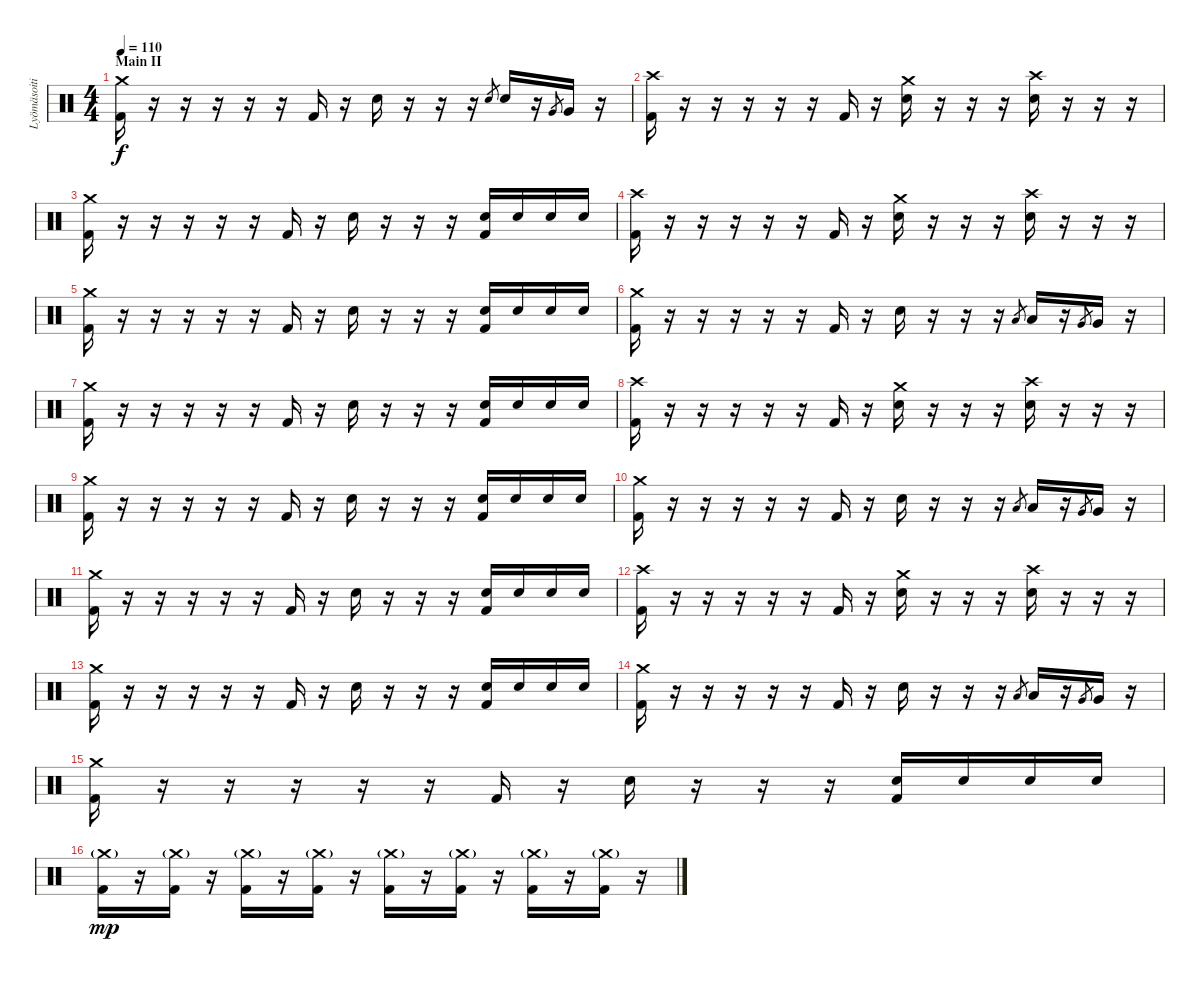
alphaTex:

\track ("Lyömäsoitin" "Lyömäsoiti") {instrument percussion}
\staff {score}
\articulation defaults
\ts (4 4)
\section ("" "Main II")
\tempo 110
\clef neutral
\ks c
("Crash medium (hit)" "Kick (hit) 2").16{dy f} r.16 r.16 r.16 r.16 r.16 "Kick (hit) 2".16 r.16 "Snare (hit) 2".16 r.16 r.16 r.16 "Snare (hit) 2"{h}.8{gr} "Snare (hit) 2".16 r.16 "Very Low Tom (hit)"{h}.8{gr} "Very Low Tom (hit)".16 r.16 |
("Crash high (hit)" "Kick (hit) 2").16 r.16 r.16 r.16 r.16 r.16 "Kick (hit) 2".16 r.16 ("Crash medium (hit)" "Snare (hit) 2").16 r.16 r.16 r.16 ("Crash high (hit)" "Snare (hit) 2").16 r.16 r.16 r.16 |
("Crash medium (hit)" "Kick (hit) 2").16 r.16 r.16 r.16 r.16 r.16 "Kick (hit) 2".16 r.16 "Snare (hit) 2".16 r.16 r.16 r.16 ("Snare (hit) 2" "Kick (hit) 2").16 "Snare (hit) 2".16 "Snare (hit) 2".16 "Snare (hit) 2".16 |
("Crash high (hit)" "Kick (hit) 2").16 r.16 r.16 r.16 r.16 r.16 "Kick (hit) 2".16 r.16 ("Crash medium (hit)" "Snare (hit) 2").16 r.16 r.16 r.16 ("Crash high (hit)" "Snare (hit) 2").16 r.16 r.16 r.16 |
("Crash medium (hit)" "Kick (hit) 2").16 r.16 r.16 r.16 r.16 r.16 "Kick (hit) 2".16 r.16 "Snare (hit) 2".16 r.16 r.16 r.16 ("Snare (hit) 2" "Kick (hit) 2").16 "Snare (hit) 2".16 "Snare (hit) 2".16 "Snare (hit) 2".16 |
("Crash medium (hit)" "Kick (hit) 2").16 r.16 r.16 r.16 r.16 r.16 "Kick (hit) 2".16 r.16 "Snare (hit) 2".16 r.16 r.16 r.16 "Low Tom (hit)"{h}.8{gr} "Low Tom (hit)".16 r.16 "Very Low Tom (hit)"{h}.8{gr} "Very Low Tom (hit)".16 r.16 |
("Crash medium (hit)" "Kick (hit) 2").16 r.16 r.16 r.16 r.16 r.16 "Kick (hit) 2".16 r.16 "Snare (hit) 2".16 r.16 r.16 r.16 ("Snare (hit) 2" "Kick (hit) 2").16 "Snare (hit) 2".16 "Snare (hit) 2".16 "Snare (hit) 2".16 |
("Crash high (hit)" "Kick (hit) 2").16 r.16 r.16 r.16 r.16 r.16 "Kick (hit) 2".16 r.16 ("Crash medium (hit)" "Snare (hit) 2").16 r.16 r.16 r.16 ("Crash high (hit)" "Snare (hit) 2").16 r.16 r.16 r.16 |
("Crash medium (hit)" "Kick (hit) 2").16 r.16 r.16 r.16 r.16 r.16 "Kick (hit) 2".16 r.16 "Snare (hit) 2".16 r.16 r.16 r.16 ("Snare (hit) 2" "Kick (hit) 2").16 "Snare (hit) 2".16 "Snare (hit) 2".16 "Snare (hit) 2".16 |
("Crash medium (hit)" "Kick (hit) 2").16 r.16 r.16 r.16 r.16 r.16 "Kick (hit) 2".16 r.16 "Snare (hit) 2".16 r.16 r.16 r.16 "Low Tom (hit)".8{gr} "Low Tom (hit)".16 r.16 "Very Low Tom (hit)".8{gr} "Very Low Tom (hit)".16 r.16 |
("Crash medium (hit)" "Kick (hit) 2").16 r.16 r.16 r.16 r.16 r.16 "Kick (hit) 2".16 r.16 "Snare (hit) 2".16 r.16 r.16 r.16 ("Snare (hit) 2" "Kick (hit) 2").16 "Snare (hit) 2".16 "Snare (hit) 2".16 "Snare (hit) 2".16 |
("Crash high (hit)" "Kick (hit) 2").16 r.16 r.16 r.16 r.16 r.16 "Kick (hit) 2".16 r.16 ("Crash medium (hit)" "Snare (hit) 2").16 r.16 r.16 r.16 ("Crash high (hit)" "Snare (hit) 2").16 r.16 r.16 r.16 |
("Crash medium (hit)" "Kick (hit) 2").16 r.16 r.16 r.16 r.16 r.16 "Kick (hit) 2".16 r.16 "Snare (hit) 2".16 r.16 r.16 r.16 ("Snare (hit) 2" "Kick (hit) 2").16 "Snare (hit) 2".16 "Snare (hit) 2".16 "Snare (hit) 2".16 |
("Crash medium (hit)" "Kick (hit) 2").16 r.16 r.16 r.16 r.16 r.16 "Kick (hit) 2".16 r.16 "Snare (hit) 2".16 r.16 r.16 r.16 "Low Tom (hit)".8{gr} "Low Tom (hit)".16 r.16 "Very Low Tom (hit)".8{gr} "Very Low Tom (hit)".16 r.16 |
("Crash medium (hit)" "Kick (hit) 2").16 r.16 r.16 r.16 r.16 r.16 "Kick (hit) 2".16 r.16 "Snare (hit) 2".16 r.16 r.16 r.16 ("Snare (hit) 2" "Kick (hit) 2").16 "Snare (hit) 2".16 "Snare (hit) 2".16 "Snare (hit) 2".16 |
("Crash medium (hit)"{g} "Kick (hit) 2").16{dy mp} r.16 ("Crash medium (hit)"{g} "Kick (hit) 2").16 r.16 ("Crash medium (hit)"{g} "Kick (hit) 2").16 r.16 ("Crash medium (hit)"{g} "Kick (hit) 2").16 r.16 ("Crash medium (hit)"{g} "Kick (hit) 2").16 r.16 ("Crash medium (hit)"{g} "Kick (hit) 2").16 r.16 ("Crash medium (hit)"{g} "Kick (hit) 2").16 r.16 ("Crash medium (hit)"{g} "Kick (hit) 2").16 r.16
